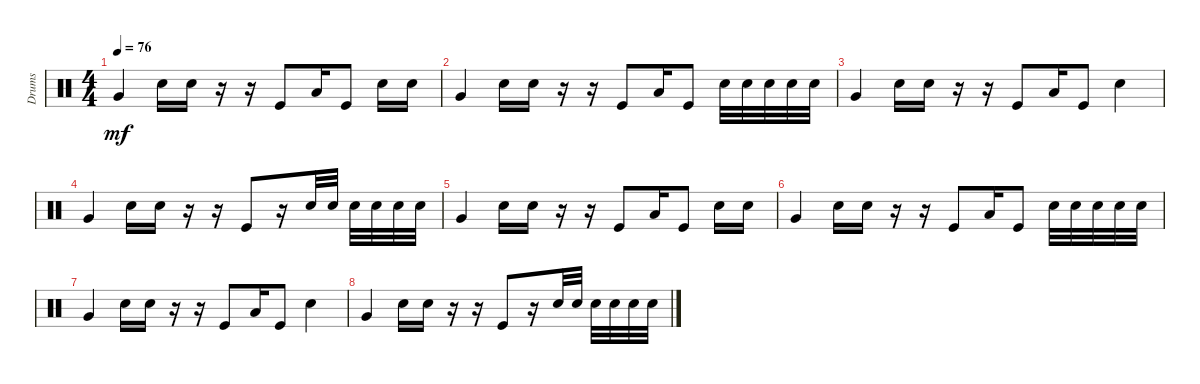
\track ("Drumkit" "Drums") {instrument percussion}
\staff {score}
\articulation defaults
\ts (4 4)
\tempo 76
\clef neutral
\ks c "Very Low Tom (hit)".4{dy mf} "Snare (hit) 2".16 "Snare (hit) 2".16
r.16 r.16 "Kick (hit)".8 "Low Tom (hit)".16 "Kick (hit)".8 "Snare (hit) 2".16 "Snare (hit) 2".16 |
"Very Low Tom (hit)".4 "Snare (hit) 2".16 "Snare (hit) 2".16 r.16 r.16 "Kick (hit)".8 "Low Tom (hit)".16 "Kick (hit)".8 "Snare (hit) 2".32 "Snare (hit) 2".32 "Snare (hit) 2".32 "Snare (hit) 2".32 "Snare (hit) 2".32 |
"Very Low Tom (hit)".4 "Snare (hit) 2".16 "Snare (hit) 2".16 r.16 r.16 "Kick (hit)".8 "Low Tom (hit)".16 "Kick (hit)".8 "Snare (hit) 2".4 |
"Very Low Tom (hit)".4 "Snare (hit) 2".16 "Snare (hit) 2".16 r.16 r.16 "Kick (hit)".8 r.16 "Snare (hit) 2".32 "Snare (hit) 2".32 "Snare (hit) 2".32 "Snare (hit) 2".32 "Snare (hit) 2".32 "Snare (hit) 2".32 |
"Very Low Tom (hit)".4 "Snare (hit) 2".16 "Snare (hit) 2".16 r.16 r.16 "Kick (hit)".8 "Low Tom (hit)".16 "Kick (hit)".8 "Snare (hit) 2".16 "Snare (hit) 2".16 |
"Very Low Tom (hit)".4 "Snare (hit) 2".16 "Snare (hit) 2".16 r.16 r.16 "Kick (hit)".8 "Low Tom (hit)".16 "Kick (hit)".8 "Snare (hit) 2".32 "Snare (hit) 2".32 "Snare (hit) 2".32 "Snare (hit) 2".32 "Snare (hit) 2".32 |
"Very Low Tom (hit)".4 "Snare (hit) 2".16 "Snare (hit) 2".16 r.16 r.16 "Kick (hit)".8 "Low Tom (hit)".16 "Kick (hit)".8 "Snare (hit) 2".4 |
"Very Low Tom (hit)".4 "Snare (hit) 2".16 "Snare (hit) 2".16 r.16 r.16 "Kick (hit)".8 r.16 "Snare (hit) 2".32 "Snare (hit) 2".32 "Snare (hit) 2".32 "Snare (hit) 2".32 "Snare (hit) 2".32 "Snare (hit) 2".32
